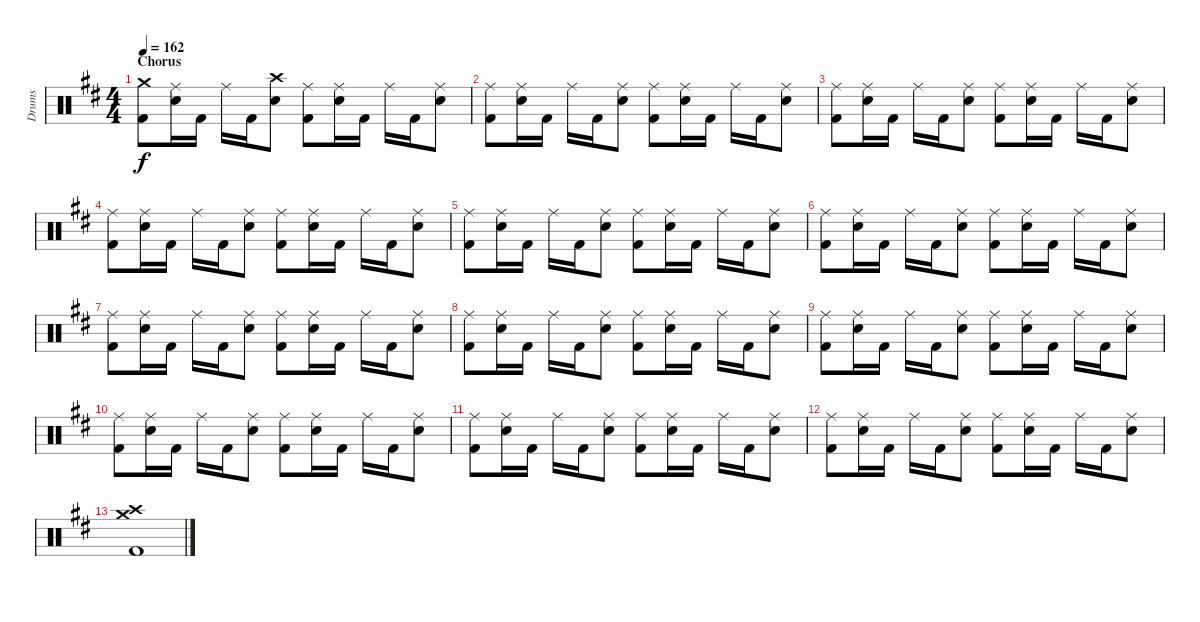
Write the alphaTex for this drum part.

\track ("Drums" "Drums") {instrument percussion}
\staff {score}
\articulation defaults
\ts (4 4)
\section ("" "Chorus")
\tempo 162
\clef neutral
\ks d
("Crash medium (hit)" "Kick (hit) 2").8{dy f} ("Ride (middle)" "Snare (hit) 2").16 "Kick (hit) 2".16 "Ride (middle)".16 "Kick (hit) 2".16 ("Crash high (hit)" "Snare (hit) 2").8 ("Ride (middle)" "Kick (hit) 2").8 ("Ride (middle)" "Snare (hit) 2").16 "Kick (hit) 2".16 "Ride (middle)".16 "Kick (hit) 2".16 ("Ride (middle)" "Snare (hit) 2").8 |
("Ride (middle)" "Kick (hit) 2").8 ("Ride (middle)" "Snare (hit) 2").16 "Kick (hit) 2".16 "Ride (middle)".16 "Kick (hit) 2".16 ("Ride (middle)" "Snare (hit) 2").8 ("Ride (middle)" "Kick (hit) 2").8 ("Ride (middle)" "Snare (hit) 2").16 "Kick (hit) 2".16 "Ride (middle)".16 "Kick (hit) 2".16 ("Ride (middle)" "Snare (hit) 2").8 |
("Ride (middle)" "Kick (hit) 2").8 ("Ride (middle)" "Snare (hit) 2").16 "Kick (hit) 2".16 "Ride (middle)".16 "Kick (hit) 2".16 ("Ride (middle)" "Snare (hit) 2").8 ("Ride (middle)" "Kick (hit) 2").8 ("Ride (middle)" "Snare (hit) 2").16 "Kick (hit) 2".16 "Ride (middle)".16 "Kick (hit) 2".16 ("Ride (middle)" "Snare (hit) 2").8 |
("Ride (middle)" "Kick (hit) 2").8 ("Ride (middle)" "Snare (hit) 2").16 "Kick (hit) 2".16 "Ride (middle)".16 "Kick (hit) 2".16 ("Ride (middle)" "Snare (hit) 2").8 ("Ride (middle)" "Kick (hit) 2").8 ("Ride (middle)" "Snare (hit) 2").16 "Kick (hit) 2".16 "Ride (middle)".16 "Kick (hit) 2".16 ("Ride (middle)" "Snare (hit) 2").8 |
("Ride (middle)" "Kick (hit) 2").8 ("Ride (middle)" "Snare (hit) 2").16 "Kick (hit) 2".16 "Ride (middle)".16 "Kick (hit) 2".16 ("Ride (middle)" "Snare (hit) 2").8 ("Ride (middle)" "Kick (hit) 2").8 ("Ride (middle)" "Snare (hit) 2").16 "Kick (hit) 2".16 "Ride (middle)".16 "Kick (hit) 2".16 ("Ride (middle)" "Snare (hit) 2").8 |
("Ride (middle)" "Kick (hit) 2").8 ("Ride (middle)" "Snare (hit) 2").16 "Kick (hit) 2".16 "Ride (middle)".16 "Kick (hit) 2".16 ("Ride (middle)" "Snare (hit) 2").8 ("Ride (middle)" "Kick (hit) 2").8 ("Ride (middle)" "Snare (hit) 2").16 "Kick (hit) 2".16 "Ride (middle)".16 "Kick (hit) 2".16 ("Ride (middle)" "Snare (hit) 2").8 |
("Ride (middle)" "Kick (hit) 2").8 ("Ride (middle)" "Snare (hit) 2").16 "Kick (hit) 2".16 "Ride (middle)".16 "Kick (hit) 2".16 ("Ride (middle)" "Snare (hit) 2").8 ("Ride (middle)" "Kick (hit) 2").8 ("Ride (middle)" "Snare (hit) 2").16 "Kick (hit) 2".16 "Ride (middle)".16 "Kick (hit) 2".16 ("Ride (middle)" "Snare (hit) 2").8 |
("Ride (middle)" "Kick (hit) 2").8 ("Ride (middle)" "Snare (hit) 2").16 "Kick (hit) 2".16 "Ride (middle)".16 "Kick (hit) 2".16 ("Ride (middle)" "Snare (hit) 2").8 ("Ride (middle)" "Kick (hit) 2").8 ("Ride (middle)" "Snare (hit) 2").16 "Kick (hit) 2".16 "Ride (middle)".16 "Kick (hit) 2".16 ("Ride (middle)" "Snare (hit) 2").8 |
("Ride (middle)" "Kick (hit) 2").8 ("Ride (middle)" "Snare (hit) 2").16 "Kick (hit) 2".16 "Ride (middle)".16 "Kick (hit) 2".16 ("Ride (middle)" "Snare (hit) 2").8 ("Ride (middle)" "Kick (hit) 2").8 ("Ride (middle)" "Snare (hit) 2").16 "Kick (hit) 2".16 "Ride (middle)".16 "Kick (hit) 2".16 ("Ride (middle)" "Snare (hit) 2").8 |
("Ride (middle)" "Kick (hit) 2").8 ("Ride (middle)" "Snare (hit) 2").16 "Kick (hit) 2".16 "Ride (middle)".16 "Kick (hit) 2".16 ("Ride (middle)" "Snare (hit) 2").8 ("Ride (middle)" "Kick (hit) 2").8 ("Ride (middle)" "Snare (hit) 2").16 "Kick (hit) 2".16 "Ride (middle)".16 "Kick (hit) 2".16 ("Ride (middle)" "Snare (hit) 2").8 |
("Ride (middle)" "Kick (hit) 2").8 ("Ride (middle)" "Snare (hit) 2").16 "Kick (hit) 2".16 "Ride (middle)".16 "Kick (hit) 2".16 ("Ride (middle)" "Snare (hit) 2").8 ("Ride (middle)" "Kick (hit) 2").8 ("Ride (middle)" "Snare (hit) 2").16 "Kick (hit) 2".16 "Ride (middle)".16 "Kick (hit) 2".16 ("Ride (middle)" "Snare (hit) 2").8 |
("Ride (middle)" "Kick (hit) 2").8 ("Ride (middle)" "Snare (hit) 2").16 "Kick (hit) 2".16 "Ride (middle)".16 "Kick (hit) 2".16 ("Ride (middle)" "Snare (hit) 2").8 ("Ride (middle)" "Kick (hit) 2").8 ("Ride (middle)" "Snare (hit) 2").16 "Kick (hit) 2".16 "Ride (middle)".16 "Kick (hit) 2".16 ("Ride (middle)" "Snare (hit) 2").8 |
("Crash high (hit)" "Crash medium (hit)" "Kick (hit) 2").1
